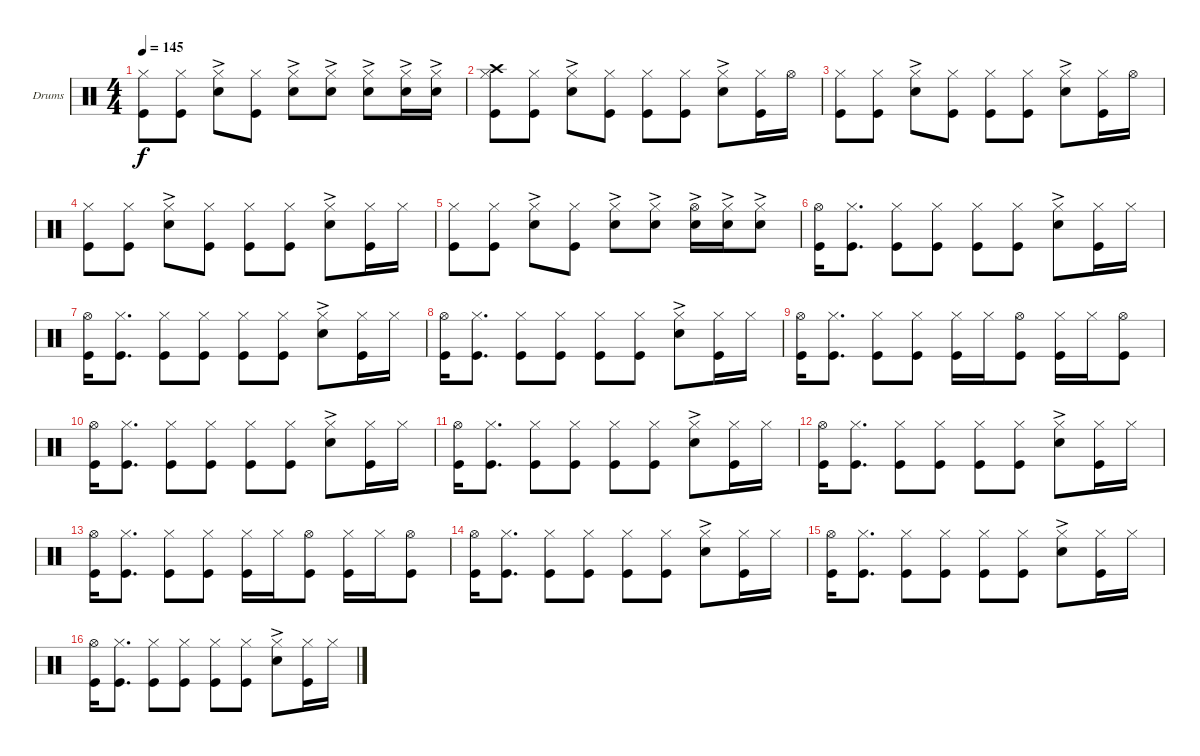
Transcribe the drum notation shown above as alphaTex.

\defaultSystemsLayout 4
\bracketExtendMode groupsimilarinstruments
\firstSystemTrackNameOrientation horizontal
\otherSystemsTrackNameOrientation horizontal
\track ("Drumkit" "Drums") {instrument percussion}
\staff {score}
\articulation defaults
\ts (4 4)
\tempo 145
\clef neutral
\ks c
("Kick (hit)" "Hi-Hat (closed)").8{dy f} ("Kick (hit)" "Hi-Hat (closed)").8 ("Snare (hit) 2"{ac} "Hi-Hat (closed)").8 ("Kick (hit)" "Hi-Hat (closed)").8 ("Snare (hit) 2"{ac} "Hi-Hat (closed)").8 ("Snare (hit) 2"{ac} "Hi-Hat (closed)").8 ("Snare (hit) 2"{ac} "Hi-Hat (closed)").8 ("Snare (hit) 2"{ac} "Hi-Hat (closed)").16 ("Snare (hit) 2"{ac} "Hi-Hat (closed)").16 |
("Kick (hit)" "Hi-Hat (closed)" "Crash high (hit)").8 ("Kick (hit)" "Hi-Hat (closed)").8 ("Snare (hit) 2"{ac} "Hi-Hat (closed)").8 ("Kick (hit)" "Hi-Hat (closed)").8 ("Kick (hit)" "Hi-Hat (closed)").8 ("Kick (hit)" "Hi-Hat (closed)").8 ("Snare (hit) 2"{ac} "Hi-Hat (closed)").8 ("Kick (hit)" "Hi-Hat (closed)").16 "Hi-Hat (open)".16 |
("Kick (hit)" "Hi-Hat (closed)").8 ("Kick (hit)" "Hi-Hat (closed)").8 ("Snare (hit) 2"{ac} "Hi-Hat (closed)").8 ("Kick (hit)" "Hi-Hat (closed)").8 ("Kick (hit)" "Hi-Hat (closed)").8 ("Kick (hit)" "Hi-Hat (closed)").8 ("Snare (hit) 2"{ac} "Hi-Hat (closed)").8 ("Kick (hit)" "Hi-Hat (closed)").16 "Hi-Hat (open)".16 |
("Kick (hit)" "Hi-Hat (closed)").8 ("Kick (hit)" "Hi-Hat (closed)").8 ("Snare (hit) 2"{ac} "Hi-Hat (closed)").8 ("Kick (hit)" "Hi-Hat (closed)").8 ("Kick (hit)" "Hi-Hat (closed)").8 ("Kick (hit)" "Hi-Hat (closed)").8 ("Snare (hit) 2"{ac} "Hi-Hat (closed)").8 ("Kick (hit)" "Hi-Hat (closed)").16 "Hi-Hat (closed)".16 |
("Kick (hit)" "Hi-Hat (closed)").8 ("Kick (hit)" "Hi-Hat (closed)").8 ("Snare (hit) 2"{ac} "Hi-Hat (closed)").8 ("Kick (hit)" "Hi-Hat (closed)").8 ("Snare (hit) 2"{ac} "Hi-Hat (closed)").8 ("Snare (hit) 2"{ac} "Hi-Hat (closed)").8 ("Snare (hit) 2"{ac} "Hi-Hat (open)").16 ("Snare (hit) 2"{ac} "Hi-Hat (closed)").16 ("Snare (hit) 2"{ac} "Hi-Hat (closed)").8 |
("Kick (hit)" "Hi-Hat (open)").16 ("Kick (hit)" "Hi-Hat (closed)").8{d} ("Kick (hit)" "Hi-Hat (closed)").8 ("Kick (hit)" "Hi-Hat (closed)").8 ("Kick (hit)" "Hi-Hat (closed)").8 ("Kick (hit)" "Hi-Hat (closed)").8 ("Snare (hit) 2"{ac} "Hi-Hat (closed)").8 ("Kick (hit)" "Hi-Hat (closed)").16 "Hi-Hat (closed)".16 |
("Kick (hit)" "Hi-Hat (open)").16 ("Kick (hit)" "Hi-Hat (closed)").8{d} ("Kick (hit)" "Hi-Hat (closed)").8 ("Kick (hit)" "Hi-Hat (closed)").8 ("Kick (hit)" "Hi-Hat (closed)").8 ("Kick (hit)" "Hi-Hat (closed)").8 ("Snare (hit) 2"{ac} "Hi-Hat (closed)").8 ("Kick (hit)" "Hi-Hat (closed)").16 "Hi-Hat (closed)".16 |
("Kick (hit)" "Hi-Hat (open)").16 ("Kick (hit)" "Hi-Hat (closed)").8{d} ("Kick (hit)" "Hi-Hat (closed)").8 ("Kick (hit)" "Hi-Hat (closed)").8 ("Kick (hit)" "Hi-Hat (closed)").8 ("Kick (hit)" "Hi-Hat (closed)").8 ("Snare (hit) 2"{ac} "Hi-Hat (closed)").8 ("Kick (hit)" "Hi-Hat (closed)").16 "Hi-Hat (closed)".16 |
("Kick (hit)" "Hi-Hat (open)").16 ("Kick (hit)" "Hi-Hat (closed)").8{d} ("Kick (hit)" "Hi-Hat (closed)").8 ("Kick (hit)" "Hi-Hat (closed)").8 ("Kick (hit)" "Hi-Hat (closed)").16 "Hi-Hat (closed)".16 ("Kick (hit)" "Hi-Hat (open)").8 ("Kick (hit)" "Hi-Hat (closed)").16 "Hi-Hat (closed)".16 ("Kick (hit)" "Hi-Hat (open)").8 |
("Kick (hit)" "Hi-Hat (open)").16 ("Kick (hit)" "Hi-Hat (closed)").8{d} ("Kick (hit)" "Hi-Hat (closed)").8 ("Kick (hit)" "Hi-Hat (closed)").8 ("Kick (hit)" "Hi-Hat (closed)").8 ("Kick (hit)" "Hi-Hat (closed)").8 ("Snare (hit) 2"{ac} "Hi-Hat (closed)").8 ("Kick (hit)" "Hi-Hat (closed)").16 "Hi-Hat (closed)".16 |
("Kick (hit)" "Hi-Hat (open)").16 ("Kick (hit)" "Hi-Hat (closed)").8{d} ("Kick (hit)" "Hi-Hat (closed)").8 ("Kick (hit)" "Hi-Hat (closed)").8 ("Kick (hit)" "Hi-Hat (closed)").8 ("Kick (hit)" "Hi-Hat (closed)").8 ("Snare (hit) 2"{ac} "Hi-Hat (closed)").8 ("Kick (hit)" "Hi-Hat (closed)").16 "Hi-Hat (closed)".16 |
("Kick (hit)" "Hi-Hat (open)").16 ("Kick (hit)" "Hi-Hat (closed)").8{d} ("Kick (hit)" "Hi-Hat (closed)").8 ("Kick (hit)" "Hi-Hat (closed)").8 ("Kick (hit)" "Hi-Hat (closed)").8 ("Kick (hit)" "Hi-Hat (closed)").8 ("Snare (hit) 2"{ac} "Hi-Hat (closed)").8 ("Kick (hit)" "Hi-Hat (closed)").16 "Hi-Hat (closed)".16 |
("Kick (hit)" "Hi-Hat (open)").16 ("Kick (hit)" "Hi-Hat (closed)").8{d} ("Kick (hit)" "Hi-Hat (closed)").8 ("Kick (hit)" "Hi-Hat (closed)").8 ("Kick (hit)" "Hi-Hat (closed)").16 "Hi-Hat (closed)".16 ("Kick (hit)" "Hi-Hat (open)").8 ("Kick (hit)" "Hi-Hat (closed)").16 "Hi-Hat (closed)".16 ("Kick (hit)" "Hi-Hat (open)").8 |
("Kick (hit)" "Hi-Hat (open)").16 ("Kick (hit)" "Hi-Hat (closed)").8{d} ("Kick (hit)" "Hi-Hat (closed)").8 ("Kick (hit)" "Hi-Hat (closed)").8 ("Kick (hit)" "Hi-Hat (closed)").8 ("Kick (hit)" "Hi-Hat (closed)").8 ("Snare (hit) 2"{ac} "Hi-Hat (closed)").8 ("Kick (hit)" "Hi-Hat (closed)").16 "Hi-Hat (closed)".16 |
("Kick (hit)" "Hi-Hat (open)").16 ("Kick (hit)" "Hi-Hat (closed)").8{d} ("Kick (hit)" "Hi-Hat (closed)").8 ("Kick (hit)" "Hi-Hat (closed)").8 ("Kick (hit)" "Hi-Hat (closed)").8 ("Kick (hit)" "Hi-Hat (closed)").8 ("Snare (hit) 2"{ac} "Hi-Hat (closed)").8 ("Kick (hit)" "Hi-Hat (closed)").16 "Hi-Hat (closed)".16 |
("Kick (hit)" "Hi-Hat (open)").16 ("Kick (hit)" "Hi-Hat (closed)").8{d} ("Kick (hit)" "Hi-Hat (closed)").8 ("Kick (hit)" "Hi-Hat (closed)").8 ("Kick (hit)" "Hi-Hat (closed)").8 ("Kick (hit)" "Hi-Hat (closed)").8 ("Snare (hit) 2"{ac} "Hi-Hat (closed)").8 ("Kick (hit)" "Hi-Hat (closed)").16 "Hi-Hat (closed)".16
